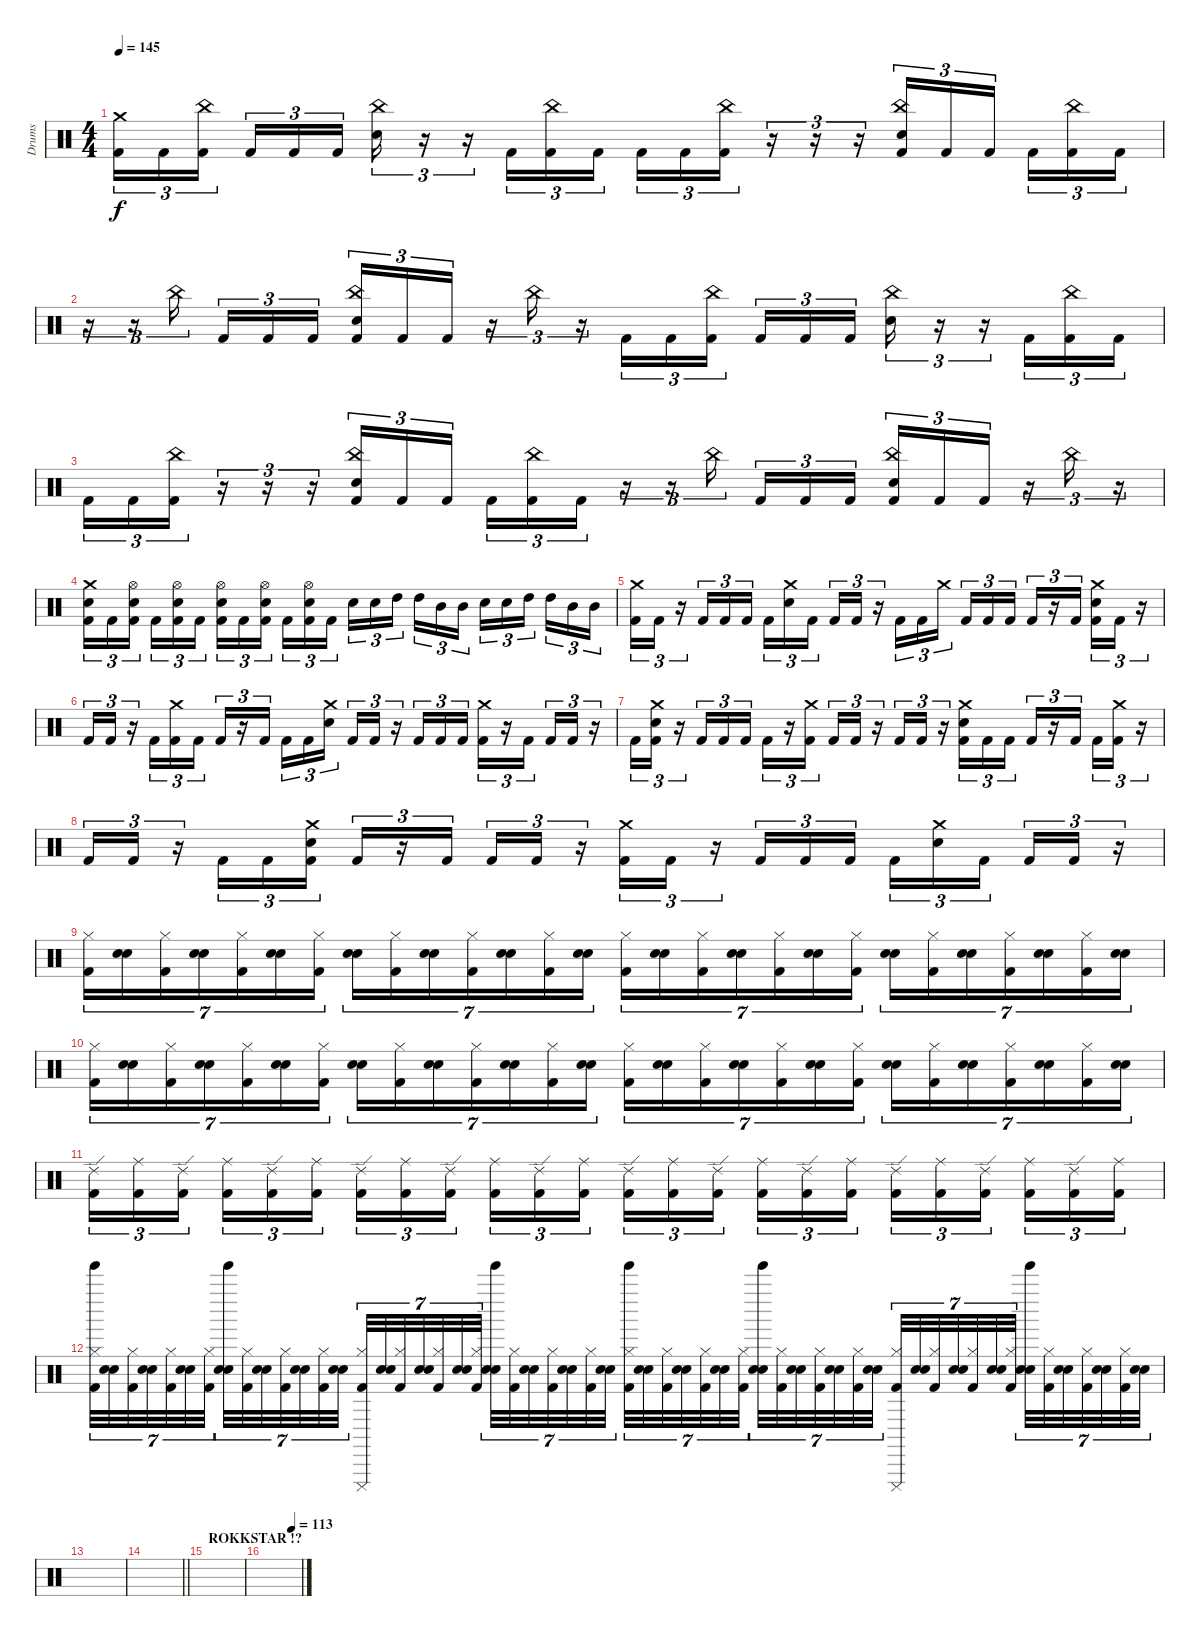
\track ("Drums" "Drums") {instrument percussion}
\staff {score}
\articulation defaults
\ts (4 4)
\tempo 145
\clef neutral
\ks c
("Crash medium (hit)" "Kick (hit) 2").16{tu (3 2) dy f} "Kick (hit) 2".16{tu (3 2)} ("China (hit)" "Kick (hit) 2").16{tu (3 2) beam splitsecondary} "Kick (hit) 2".16{tu (3 2)} "Kick (hit) 2".16{tu (3 2)} "Kick (hit) 2".16{tu (3 2)} ("China (hit)" "Electric Snare (hit)").16{tu (3 2)} r.16{tu (3 2)} r.16{tu (3 2)} "Kick (hit) 2".16{tu (3 2)} ("China (hit)" "Kick (hit) 2").16{tu (3 2)} "Kick (hit) 2".16{tu (3 2)} "Kick (hit) 2".16{tu (3 2)} "Kick (hit) 2".16{tu (3 2)} ("China (hit)" "Kick (hit) 2").16{tu (3 2)} r.16{tu (3 2)} r.16{tu (3 2)} r.16{tu (3 2)} ("China (hit)" "Electric Snare (hit)" "Kick (hit) 2").16{tu (3 2)} "Kick (hit) 2".16{tu (3 2)} "Kick (hit) 2".16{tu (3 2) beam splitsecondary} "Kick (hit) 2".16{tu (3 2)} ("China (hit)" "Kick (hit) 2").16{tu (3 2)} "Kick (hit) 2".16{tu (3 2)} |
r.16{tu (3 2)} r.16{tu (3 2)} "China (hit)".16{tu (3 2) beam splitsecondary} "Kick (hit) 2".16{tu (3 2)} "Kick (hit) 2".16{tu (3 2)} "Kick (hit) 2".16{tu (3 2)} ("China (hit)" "Electric Snare (hit)" "Kick (hit) 2").16{tu (3 2)} "Kick (hit) 2".16{tu (3 2)} "Kick (hit) 2".16{tu (3 2)} r.16{tu (3 2)} "China (hit)".16{tu (3 2)} r.16{tu (3 2)} "Kick (hit) 2".16{tu (3 2)} "Kick (hit) 2".16{tu (3 2)} ("China (hit)" "Kick (hit) 2").16{tu (3 2) beam splitsecondary} "Kick (hit) 2".16{tu (3 2)} "Kick (hit) 2".16{tu (3 2)} "Kick (hit) 2".16{tu (3 2)} ("China (hit)" "Electric Snare (hit)").16{tu (3 2)} r.16{tu (3 2)} r.16{tu (3 2)} "Kick (hit) 2".16{tu (3 2)} ("China (hit)" "Kick (hit) 2").16{tu (3 2)} "Kick (hit) 2".16{tu (3 2)} |
"Kick (hit) 2".16{tu (3 2)} "Kick (hit) 2".16{tu (3 2)} ("China (hit)" "Kick (hit) 2").16{tu (3 2)} r.16{tu (3 2)} r.16{tu (3 2)} r.16{tu (3 2)} ("China (hit)" "Electric Snare (hit)" "Kick (hit) 2").16{tu (3 2)} "Kick (hit) 2".16{tu (3 2)} "Kick (hit) 2".16{tu (3 2) beam splitsecondary} "Kick (hit) 2".16{tu (3 2)} ("China (hit)" "Kick (hit) 2").16{tu (3 2)} "Kick (hit) 2".16{tu (3 2)} r.16{tu (3 2)} r.16{tu (3 2)} "China (hit)".16{tu (3 2) beam splitsecondary} "Kick (hit) 2".16{tu (3 2)} "Kick (hit) 2".16{tu (3 2)} "Kick (hit) 2".16{tu (3 2)} ("China (hit)" "Electric Snare (hit)" "Kick (hit) 2").16{tu (3 2)} "Kick (hit) 2".16{tu (3 2)} "Kick (hit) 2".16{tu (3 2)} r.16{tu (3 2)} "China (hit)".16{tu (3 2)} r.16{tu (3 2)} |
("Crash medium (hit)" "Electric Snare (hit)" "Kick (hit) 2").16{tu (3 2)} "Kick (hit) 2".16{tu (3 2)} ("Hi-Hat (open)" "Electric Snare (hit)" "Kick (hit) 2").16{tu (3 2) beam splitsecondary} "Kick (hit) 2".16{tu (3 2)} ("Hi-Hat (open)" "Electric Snare (hit)" "Kick (hit) 2").16{tu (3 2)} "Kick (hit) 2".16{tu (3 2)} ("Hi-Hat (open)" "Electric Snare (hit)" "Kick (hit) 2").16{tu (3 2)} "Kick (hit) 2".16{tu (3 2)} ("Hi-Hat (open)" "Electric Snare (hit)" "Kick (hit) 2").16{tu (3 2) beam splitsecondary} "Kick (hit) 2".16{tu (3 2)} ("Hi-Hat (open)" "Electric Snare (hit)" "Kick (hit) 2").16{tu (3 2)} "Kick (hit) 2".16{tu (3 2)} "Electric Snare (hit)".16{tu (3 2)} "Electric Snare (hit)".16{tu (3 2)} "High Tom (hit)".16{tu (3 2) beam splitsecondary} "High Tom (hit)".16{tu (3 2)} "Mid Tom (hit)".16{tu (3 2)} "Mid Tom (hit)".16{tu (3 2)} "Electric Snare (hit)".16{tu (3 2)} "Electric Snare (hit)".16{tu (3 2)} "High Tom (hit)".16{tu (3 2) beam splitsecondary} "High Tom (hit)".16{tu (3 2)} "Mid Tom (hit)".16{tu (3 2)} "Mid Tom (hit)".16{tu (3 2)} |
("Crash medium (hit)" "Kick (hit) 2").16{tu (3 2)} "Kick (hit) 2".16{tu (3 2)} r.16{tu (3 2)} "Kick (hit) 2".16{tu (3 2)} "Kick (hit) 2".16{tu (3 2)} "Kick (hit) 2".16{tu (3 2)} "Kick (hit) 2".16{tu (3 2)} ("Crash medium (hit)" "Electric Snare (hit)").16{tu (3 2)} "Kick (hit) 2".16{tu (3 2) beam splitsecondary} "Kick (hit) 2".16{tu (3 2)} "Kick (hit) 2".16{tu (3 2)} r.16{tu (3 2)} "Kick (hit) 2".16{tu (3 2)} "Kick (hit) 2".16{tu (3 2)} "Crash medium (hit)".16{tu (3 2) beam splitsecondary} "Kick (hit) 2".16{tu (3 2)} "Kick (hit) 2".16{tu (3 2)} "Kick (hit) 2".16{tu (3 2)} "Kick (hit) 2".16{tu (3 2)} r.16{tu (3 2)} "Kick (hit) 2".16{tu (3 2) beam splitsecondary} ("Crash medium (hit)" "Electric Snare (hit)" "Kick (hit) 2").16{tu (3 2)} "Kick (hit) 2".16{tu (3 2)} r.16{tu (3 2)} |
"Kick (hit) 2".16{tu (3 2)} "Kick (hit) 2".16{tu (3 2)} r.16{tu (3 2)} "Kick (hit) 2".16{tu (3 2)} ("Crash medium (hit)" "Kick (hit) 2").16{tu (3 2)} "Kick (hit) 2".16{tu (3 2)} "Kick (hit) 2".16{tu (3 2)} r.16{tu (3 2)} "Kick (hit) 2".16{tu (3 2) beam splitsecondary} "Kick (hit) 2".16{tu (3 2)} "Kick (hit) 2".16{tu (3 2)} ("Crash medium (hit)" "Electric Snare (hit)").16{tu (3 2)} "Kick (hit) 2".16{tu (3 2)} "Kick (hit) 2".16{tu (3 2)} r.16{tu (3 2)} "Kick (hit) 2".16{tu (3 2)} "Kick (hit) 2".16{tu (3 2)} "Kick (hit) 2".16{tu (3 2)} ("Crash medium (hit)" "Kick (hit) 2").16{tu (3 2)} r.16{tu (3 2)} "Kick (hit) 2".16{tu (3 2) beam splitsecondary} "Kick (hit) 2".16{tu (3 2)} "Kick (hit) 2".16{tu (3 2)} r.16{tu (3 2)} |
"Kick (hit) 2".16{tu (3 2)} ("Crash medium (hit)" "Electric Snare (hit)" "Kick (hit) 2").16{tu (3 2)} r.16{tu (3 2)} "Kick (hit) 2".16{tu (3 2)} "Kick (hit) 2".16{tu (3 2)} "Kick (hit) 2".16{tu (3 2)} "Kick (hit) 2".16{tu (3 2)} r.16{tu (3 2)} ("Crash medium (hit)" "Kick (hit) 2").16{tu (3 2) beam splitsecondary} "Kick (hit) 2".16{tu (3 2)} "Kick (hit) 2".16{tu (3 2)} r.16{tu (3 2)} "Kick (hit) 2".16{tu (3 2)} "Kick (hit) 2".16{tu (3 2)} r.16{tu (3 2)} ("Crash medium (hit)" "Electric Snare (hit)" "Kick (hit) 2").16{tu (3 2)} "Kick (hit) 2".16{tu (3 2)} "Kick (hit) 2".16{tu (3 2)} "Kick (hit) 2".16{tu (3 2)} r.16{tu (3 2)} "Kick (hit) 2".16{tu (3 2) beam splitsecondary} "Kick (hit) 2".16{tu (3 2)} ("Crash medium (hit)" "Kick (hit) 2").16{tu (3 2)} r.16{tu (3 2)} |
"Kick (hit) 2".16{tu (3 2)} "Kick (hit) 2".16{tu (3 2)} r.16{tu (3 2)} "Kick (hit) 2".16{tu (3 2)} "Kick (hit) 2".16{tu (3 2)} ("Crash medium (hit)" "Electric Snare (hit)" "Kick (hit) 2").16{tu (3 2)} "Kick (hit) 2".16{tu (3 2)} r.16{tu (3 2)} "Kick (hit) 2".16{tu (3 2) beam splitsecondary} "Kick (hit) 2".16{tu (3 2)} "Kick (hit) 2".16{tu (3 2)} r.16{tu (3 2)} ("Crash medium (hit)" "Kick (hit) 2").16{tu (3 2)} "Kick (hit) 2".16{tu (3 2)} r.16{tu (3 2)} "Kick (hit) 2".16{tu (3 2)} "Kick (hit) 2".16{tu (3 2)} "Kick (hit) 2".16{tu (3 2)} "Kick (hit) 2".16{tu (3 2)} ("Crash medium (hit)" "Electric Snare (hit)").16{tu (3 2)} "Kick (hit) 2".16{tu (3 2) beam splitsecondary} "Kick (hit) 2".16{tu (3 2)} "Kick (hit) 2".16{tu (3 2)} r.16{tu (3 2)} |
("Hi-Hat (closed)" "Kick (hit) 2").16{tu (7 4)} ("Hand Clap (hit)" "Electric Snare (hit)").16{tu (7 4)} ("Hi-Hat (closed)" "Kick (hit) 2").16{tu (7 4)} ("Hand Clap (hit)" "Electric Snare (hit)").16{tu (7 4)} ("Hi-Hat (closed)" "Kick (hit) 2").16{tu (7 4)} ("Hand Clap (hit)" "Electric Snare (hit)").16{tu (7 4)} ("Hi-Hat (closed)" "Kick (hit) 2").16{tu (7 4)} ("Hand Clap (hit)" "Electric Snare (hit)").16{tu (7 4)} ("Hi-Hat (closed)" "Kick (hit) 2").16{tu (7 4)} ("Hand Clap (hit)" "Electric Snare (hit)").16{tu (7 4)} ("Hi-Hat (closed)" "Kick (hit) 2").16{tu (7 4)} ("Hand Clap (hit)" "Electric Snare (hit)").16{tu (7 4)} ("Hi-Hat (closed)" "Kick (hit) 2").16{tu (7 4)} ("Hand Clap (hit)" "Electric Snare (hit)").16{tu (7 4)} ("Hi-Hat (closed)" "Kick (hit) 2").16{tu (7 4)} ("Hand Clap (hit)" "Electric Snare (hit)").16{tu (7 4)} ("Hi-Hat (closed)" "Kick (hit) 2").16{tu (7 4)} ("Hand Clap (hit)" "Electric Snare (hit)").16{tu (7 4)} ("Hi-Hat (closed)" "Kick (hit) 2").16{tu (7 4)} ("Hand Clap (hit)" "Electric Snare (hit)").16{tu (7 4)} ("Hi-Hat (closed)" "Kick (hit) 2").16{tu (7 4)} ("Hand Clap (hit)" "Electric Snare (hit)").16{tu (7 4)} ("Hi-Hat (closed)" "Kick (hit) 2").16{tu (7 4)} ("Hand Clap (hit)" "Electric Snare (hit)").16{tu (7 4)} ("Hi-Hat (closed)" "Kick (hit) 2").16{tu (7 4)} ("Hand Clap (hit)" "Electric Snare (hit)").16{tu (7 4)} ("Hi-Hat (closed)" "Kick (hit) 2").16{tu (7 4)} ("Hand Clap (hit)" "Electric Snare (hit)").16{tu (7 4)} |
("Hi-Hat (closed)" "Kick (hit) 2").16{tu (7 4)} ("Hand Clap (hit)" "Electric Snare (hit)").16{tu (7 4)} ("Hi-Hat (closed)" "Kick (hit) 2").16{tu (7 4)} ("Hand Clap (hit)" "Electric Snare (hit)").16{tu (7 4)} ("Hi-Hat (closed)" "Kick (hit) 2").16{tu (7 4)} ("Hand Clap (hit)" "Electric Snare (hit)").16{tu (7 4)} ("Hi-Hat (closed)" "Kick (hit) 2").16{tu (7 4)} ("Hand Clap (hit)" "Electric Snare (hit)").16{tu (7 4)} ("Hi-Hat (closed)" "Kick (hit) 2").16{tu (7 4)} ("Hand Clap (hit)" "Electric Snare (hit)").16{tu (7 4)} ("Hi-Hat (closed)" "Kick (hit) 2").16{tu (7 4)} ("Hand Clap (hit)" "Electric Snare (hit)").16{tu (7 4)} ("Hi-Hat (closed)" "Kick (hit) 2").16{tu (7 4)} ("Hand Clap (hit)" "Electric Snare (hit)").16{tu (7 4)} ("Hi-Hat (closed)" "Kick (hit) 2").16{tu (7 4)} ("Hand Clap (hit)" "Electric Snare (hit)").16{tu (7 4)} ("Hi-Hat (closed)" "Kick (hit) 2").16{tu (7 4)} ("Hand Clap (hit)" "Electric Snare (hit)").16{tu (7 4)} ("Hi-Hat (closed)" "Kick (hit) 2").16{tu (7 4)} ("Hand Clap (hit)" "Electric Snare (hit)").16{tu (7 4)} ("Hi-Hat (closed)" "Kick (hit) 2").16{tu (7 4)} ("Hand Clap (hit)" "Electric Snare (hit)").16{tu (7 4)} ("Hi-Hat (closed)" "Kick (hit) 2").16{tu (7 4)} ("Hand Clap (hit)" "Electric Snare (hit)").16{tu (7 4)} ("Hi-Hat (closed)" "Kick (hit) 2").16{tu (7 4)} ("Hand Clap (hit)" "Electric Snare (hit)").16{tu (7 4)} ("Hi-Hat (closed)" "Kick (hit) 2").16{tu (7 4)} ("Hand Clap (hit)" "Electric Snare (hit)").16{tu (7 4)} |
("Ride (edge) 2" "Kick (hit) 2").16{tu (3 2)} ("Ride (middle)" "Kick (hit) 2").16{tu (3 2)} ("Ride (edge) 2" "Kick (hit) 2").16{tu (3 2) beam splitsecondary} ("Ride (middle)" "Kick (hit) 2").16{tu (3 2)} ("Ride (edge) 2" "Kick (hit) 2").16{tu (3 2)} ("Ride (middle)" "Kick (hit) 2").16{tu (3 2)} ("Ride (edge) 2" "Kick (hit) 2").16{tu (3 2)} ("Ride (middle)" "Kick (hit) 2").16{tu (3 2)} ("Ride (edge) 2" "Kick (hit) 2").16{tu (3 2) beam splitsecondary} ("Ride (middle)" "Kick (hit) 2").16{tu (3 2)} ("Ride (edge) 2" "Kick (hit) 2").16{tu (3 2)} ("Ride (middle)" "Kick (hit) 2").16{tu (3 2)} ("Ride (edge) 2" "Kick (hit) 2").16{tu (3 2)} ("Ride (middle)" "Kick (hit) 2").16{tu (3 2)} ("Ride (edge) 2" "Kick (hit) 2").16{tu (3 2) beam splitsecondary} ("Ride (middle)" "Kick (hit) 2").16{tu (3 2)} ("Ride (edge) 2" "Kick (hit) 2").16{tu (3 2)} ("Ride (middle)" "Kick (hit) 2").16{tu (3 2)} ("Ride (edge) 2" "Kick (hit) 2").16{tu (3 2)} ("Ride (middle)" "Kick (hit) 2").16{tu (3 2)} ("Ride (edge) 2" "Kick (hit) 2").16{tu (3 2) beam splitsecondary} ("Ride (middle)" "Kick (hit) 2").16{tu (3 2)} ("Ride (edge) 2" "Kick (hit) 2").16{tu (3 2)} ("Ride (middle)" "Kick (hit) 2").16{tu (3 2)} |
("Tinkle Bell (hit)" "Hi-Hat (closed)" "Kick (hit) 2").32{tu (7 4)} ("Hand Clap (hit)" "Electric Snare (hit)").32{tu (7 4)} ("Hi-Hat (closed)" "Kick (hit) 2").32{tu (7 4)} ("Hand Clap (hit)" "Electric Snare (hit)").32{tu (7 4)} ("Hi-Hat (closed)" "Kick (hit) 2").32{tu (7 4)} ("Hand Clap (hit)" "Electric Snare (hit)").32{tu (7 4)} ("Hi-Hat (closed)" "Kick (hit) 2").32{tu (7 4) beam splitsecondary} ("Tinkle Bell (hit)" "Hand Clap (hit)" "Electric Snare (hit)").32{tu (7 4)} ("Hi-Hat (closed)" "Kick (hit) 2").32{tu (7 4)} ("Hand Clap (hit)" "Electric Snare (hit)").32{tu (7 4)} ("Hi-Hat (closed)" "Kick (hit) 2").32{tu (7 4)} ("Hand Clap (hit)" "Electric Snare (hit)").32{tu (7 4)} ("Hi-Hat (closed)" "Kick (hit) 2").32{tu (7 4)} ("Hand Clap (hit)" "Electric Snare (hit)").32{tu (7 4)} ("Cuica (mute)" "Hi-Hat (closed)" "Kick (hit) 2").32{tu (7 4)} ("Hand Clap (hit)" "Electric Snare (hit)").32{tu (7 4)} ("Hi-Hat (closed)" "Kick (hit) 2").32{tu (7 4)} ("Hand Clap (hit)" "Electric Snare (hit)").32{tu (7 4)} ("Hi-Hat (closed)" "Kick (hit) 2").32{tu (7 4)} ("Hand Clap (hit)" "Electric Snare (hit)").32{tu (7 4)} ("Hi-Hat (closed)" "Kick (hit) 2").32{tu (7 4) beam splitsecondary} ("Tinkle Bell (hit)" "Hand Clap (hit)" "Electric Snare (hit)").32{tu (7 4)} ("Hi-Hat (closed)" "Kick (hit) 2").32{tu (7 4)} ("Hand Clap (hit)" "Electric Snare (hit)").32{tu (7 4)} ("Hi-Hat (closed)" "Kick (hit) 2").32{tu (7 4)} ("Hand Clap (hit)" "Electric Snare (hit)").32{tu (7 4)} ("Hi-Hat (closed)" "Kick (hit) 2").32{tu (7 4)} ("Hand Clap (hit)" "Electric Snare (hit)").32{tu (7 4)} ("Tinkle Bell (hit)" "Hi-Hat (closed)" "Kick (hit) 2").32{tu (7 4)} ("Hand Clap (hit)" "Electric Snare (hit)").32{tu (7 4)} ("Hi-Hat (closed)" "Kick (hit) 2").32{tu (7 4)} ("Hand Clap (hit)" "Electric Snare (hit)").32{tu (7 4)} ("Hi-Hat (closed)" "Kick (hit) 2").32{tu (7 4)} ("Hand Clap (hit)" "Electric Snare (hit)").32{tu (7 4)} ("Hi-Hat (closed)" "Kick (hit) 2").32{tu (7 4) beam splitsecondary} ("Tinkle Bell (hit)" "Hand Clap (hit)" "Electric Snare (hit)").32{tu (7 4)} ("Hi-Hat (closed)" "Kick (hit) 2").32{tu (7 4)} ("Hand Clap (hit)" "Electric Snare (hit)").32{tu (7 4)} ("Hi-Hat (closed)" "Kick (hit) 2").32{tu (7 4)} ("Hand Clap (hit)" "Electric Snare (hit)").32{tu (7 4)} ("Hi-Hat (closed)" "Kick (hit) 2").32{tu (7 4)} ("Hand Clap (hit)" "Electric Snare (hit)").32{tu (7 4)} ("Cuica (mute)" "Hi-Hat (closed)" "Kick (hit) 2").32{tu (7 4)} ("Hand Clap (hit)" "Electric Snare (hit)").32{tu (7 4)} ("Hi-Hat (closed)" "Kick (hit) 2").32{tu (7 4)} ("Hand Clap (hit)" "Electric Snare (hit)").32{tu (7 4)} ("Hi-Hat (closed)" "Kick (hit) 2").32{tu (7 4)} ("Hand Clap (hit)" "Electric Snare (hit)").32{tu (7 4)} ("Hi-Hat (closed)" "Kick (hit) 2").32{tu (7 4) beam splitsecondary} ("Tinkle Bell (hit)" "Hand Clap (hit)" "Electric Snare (hit)").32{tu (7 4)} ("Hi-Hat (closed)" "Kick (hit) 2").32{tu (7 4)} ("Hand Clap (hit)" "Electric Snare (hit)").32{tu (7 4)} ("Hi-Hat (closed)" "Kick (hit) 2").32{tu (7 4)} ("Hand Clap (hit)" "Electric Snare (hit)").32{tu (7 4)} ("Hi-Hat (closed)" "Kick (hit) 2").32{tu (7 4)} ("Hand Clap (hit)" "Electric Snare (hit)").32{tu (7 4)} |
|
\barLineRight lightlight
|
\section ("" "ROKKSTAR !?")
|
\tempo (113 0.75)
